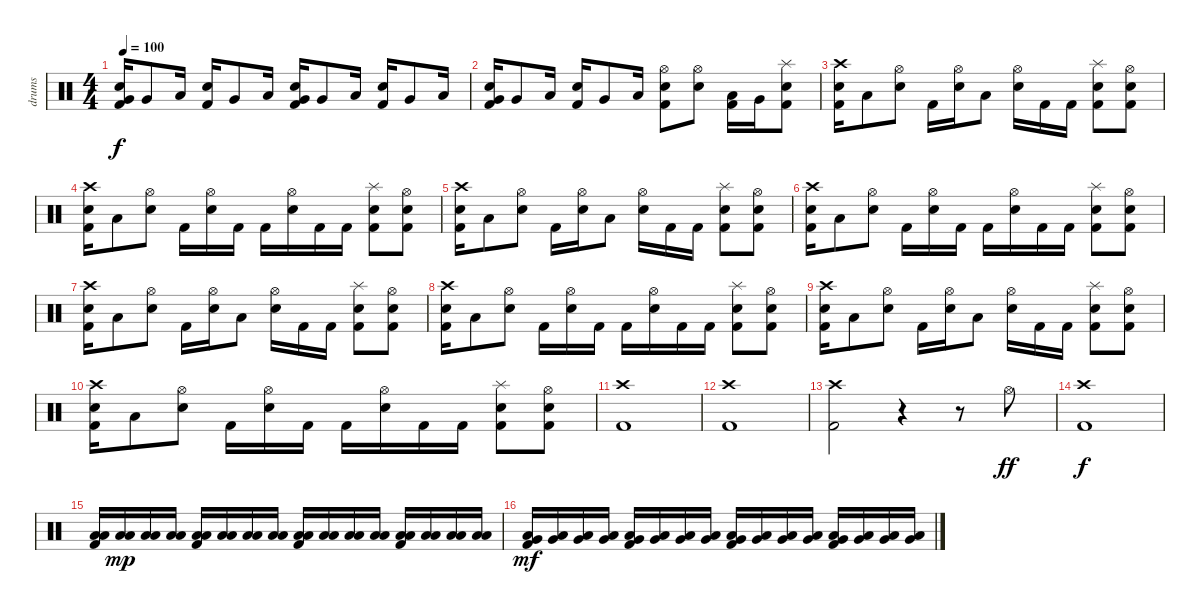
\track ("drums" "drums") {instrument percussion}
\staff {score}
\articulation defaults
\ts (4 4)
\tempo 100
\clef neutral
\ks c
("Electric Snare (hit)" "Very Low Tom (hit)" "Kick (hit) 2").16{dy f} "Very Low Tom (hit)".8 "Low Floor Tom (hit)".16 ("Electric Snare (hit)" "Kick (hit) 2").16 "Very Low Tom (hit)".8 "Low Floor Tom (hit)".16 ("Electric Snare (hit)" "Very Low Tom (hit)" "Kick (hit) 2").16 "Very Low Tom (hit)".8 "Low Floor Tom (hit)".16 ("Electric Snare (hit)" "Kick (hit) 2").16 "Very Low Tom (hit)".8 "Low Floor Tom (hit)".16 |
("Electric Snare (hit)" "Very Low Tom (hit)" "Kick (hit) 2").16 "Very Low Tom (hit)".8 "Low Floor Tom (hit)".16 ("Electric Snare (hit)" "Kick (hit) 2").16 "Very Low Tom (hit)".8 "Low Floor Tom (hit)".16 ("Hi-Hat (open)" "Electric Snare (hit)" "Kick (hit) 2").8 ("Hi-Hat (open)" "Electric Snare (hit)").8 ("Low Floor Tom (hit)" "Kick (hit) 2").16 "Very Low Tom (hit)".16 ("Splash (hit)" "Electric Snare (hit)" "Kick (hit) 2").8 |
("Crash high (hit)" "Electric Snare (hit)" "Kick (hit) 2").16 "Low Floor Tom (hit)".8 ("Hi-Hat (open)" "Electric Snare (hit)").8 "Kick (hit) 2".16 ("Hi-Hat (open)" "Electric Snare (hit)").16 "Low Floor Tom (hit)".8 ("Hi-Hat (open)" "Electric Snare (hit)").16 "Kick (hit) 2".16 "Kick (hit) 2".16 ("Splash (hit)" "Electric Snare (hit)" "Kick (hit) 2").8 ("Hi-Hat (open)" "Electric Snare (hit)" "Kick (hit) 2").8 |
("Crash high (hit)" "Electric Snare (hit)" "Kick (hit) 2").16 "Low Floor Tom (hit)".8 ("Hi-Hat (open)" "Electric Snare (hit)").8 "Kick (hit) 2".16 ("Hi-Hat (open)" "Electric Snare (hit)").16 "Kick (hit) 2".16 "Kick (hit) 2".16 ("Hi-Hat (open)" "Electric Snare (hit)").16 "Kick (hit) 2".16 "Kick (hit) 2".16 ("Splash (hit)" "Electric Snare (hit)" "Kick (hit) 2").8 ("Hi-Hat (open)" "Electric Snare (hit)" "Kick (hit) 2").8 |
("Crash high (hit)" "Electric Snare (hit)" "Kick (hit) 2").16 "Low Floor Tom (hit)".8 ("Hi-Hat (open)" "Electric Snare (hit)").8 "Kick (hit) 2".16 ("Hi-Hat (open)" "Electric Snare (hit)").16 "Low Floor Tom (hit)".8 ("Hi-Hat (open)" "Electric Snare (hit)").16 "Kick (hit) 2".16 "Kick (hit) 2".16 ("Splash (hit)" "Electric Snare (hit)" "Kick (hit) 2").8 ("Hi-Hat (open)" "Electric Snare (hit)" "Kick (hit) 2").8 |
("Crash high (hit)" "Electric Snare (hit)" "Kick (hit) 2").16 "Low Floor Tom (hit)".8 ("Hi-Hat (open)" "Electric Snare (hit)").8 "Kick (hit) 2".16 ("Hi-Hat (open)" "Electric Snare (hit)").16 "Kick (hit) 2".16 "Kick (hit) 2".16 ("Hi-Hat (open)" "Electric Snare (hit)").16 "Kick (hit) 2".16 "Kick (hit) 2".16 ("Splash (hit)" "Electric Snare (hit)" "Kick (hit) 2").8 ("Hi-Hat (open)" "Electric Snare (hit)" "Kick (hit) 2").8 |
("Crash high (hit)" "Electric Snare (hit)" "Kick (hit) 2").16 "Low Floor Tom (hit)".8 ("Hi-Hat (open)" "Electric Snare (hit)").8 "Kick (hit) 2".16 ("Hi-Hat (open)" "Electric Snare (hit)").16 "Low Floor Tom (hit)".8 ("Hi-Hat (open)" "Electric Snare (hit)").16 "Kick (hit) 2".16 "Kick (hit) 2".16 ("Splash (hit)" "Electric Snare (hit)" "Kick (hit) 2").8 ("Hi-Hat (open)" "Electric Snare (hit)" "Kick (hit) 2").8 |
("Crash high (hit)" "Electric Snare (hit)" "Kick (hit) 2").16 "Low Floor Tom (hit)".8 ("Hi-Hat (open)" "Electric Snare (hit)").8 "Kick (hit) 2".16 ("Hi-Hat (open)" "Electric Snare (hit)").16 "Kick (hit) 2".16 "Kick (hit) 2".16 ("Hi-Hat (open)" "Electric Snare (hit)").16 "Kick (hit) 2".16 "Kick (hit) 2".16 ("Splash (hit)" "Electric Snare (hit)" "Kick (hit) 2").8 ("Hi-Hat (open)" "Electric Snare (hit)" "Kick (hit) 2").8 |
("Crash high (hit)" "Electric Snare (hit)" "Kick (hit) 2").16 "Low Floor Tom (hit)".8 ("Hi-Hat (open)" "Electric Snare (hit)").8 "Kick (hit) 2".16 ("Hi-Hat (open)" "Electric Snare (hit)").16 "Low Floor Tom (hit)".8 ("Hi-Hat (open)" "Electric Snare (hit)").16 "Kick (hit) 2".16 "Kick (hit) 2".16 ("Splash (hit)" "Electric Snare (hit)" "Kick (hit) 2").8 ("Hi-Hat (open)" "Electric Snare (hit)" "Kick (hit) 2").8 |
("Crash high (hit)" "Electric Snare (hit)" "Kick (hit) 2").16 "Low Floor Tom (hit)".8 ("Hi-Hat (open)" "Electric Snare (hit)").8 "Kick (hit) 2".16 ("Hi-Hat (open)" "Electric Snare (hit)").16 "Kick (hit) 2".16 "Kick (hit) 2".16 ("Hi-Hat (open)" "Electric Snare (hit)").16 "Kick (hit) 2".16 "Kick (hit) 2".16 ("Splash (hit)" "Electric Snare (hit)" "Kick (hit) 2").8 ("Hi-Hat (open)" "Electric Snare (hit)" "Kick (hit) 2").8 |
("Crash high (hit)" "Kick (hit) 2").1 |
("Crash high (hit)" "Kick (hit) 2").1 |
("Crash high (hit)" "Kick (hit) 2").2 r.4 r.8 "Hi-Hat (open)".8{dy ff} |
("Crash high (hit)" "Kick (hit) 2").1{dy f} |
("Low Floor Tom (hit)" "Low Floor Tom (hit)" "Kick (hit) 2").16 ("Low Floor Tom (hit)" "Low Floor Tom (hit)").16{dy mp} ("Low Floor Tom (hit)" "Low Floor Tom (hit)").16 ("Low Floor Tom (hit)" "Low Floor Tom (hit)").16 ("Low Floor Tom (hit)" "Low Floor Tom (hit)" "Kick (hit) 2").16 ("Low Floor Tom (hit)" "Low Floor Tom (hit)").16 ("Low Floor Tom (hit)" "Low Floor Tom (hit)").16 ("Low Floor Tom (hit)" "Low Floor Tom (hit)").16 ("Low Floor Tom (hit)" "Low Floor Tom (hit)" "Kick (hit) 2").16 ("Low Floor Tom (hit)" "Low Floor Tom (hit)").16 ("Low Floor Tom (hit)" "Low Floor Tom (hit)").16 ("Low Floor Tom (hit)" "Low Floor Tom (hit)").16 ("Low Floor Tom (hit)" "Low Floor Tom (hit)" "Kick (hit) 2").16 ("Low Floor Tom (hit)" "Low Floor Tom (hit)").16 ("Low Floor Tom (hit)" "Low Floor Tom (hit)").16 ("Low Floor Tom (hit)" "Low Floor Tom (hit)").16 |
("Very Low Tom (hit)" "Low Floor Tom (hit)" "Kick (hit) 2").16{dy mf} ("Very Low Tom (hit)" "Low Floor Tom (hit)").16 ("Very Low Tom (hit)" "Low Floor Tom (hit)").16 ("Very Low Tom (hit)" "Low Floor Tom (hit)").16 ("Very Low Tom (hit)" "Low Floor Tom (hit)" "Kick (hit) 2").16 ("Very Low Tom (hit)" "Low Floor Tom (hit)").16 ("Very Low Tom (hit)" "Low Floor Tom (hit)").16 ("Very Low Tom (hit)" "Low Floor Tom (hit)").16 ("Very Low Tom (hit)" "Low Floor Tom (hit)" "Kick (hit) 2").16 ("Very Low Tom (hit)" "Low Floor Tom (hit)").16 ("Very Low Tom (hit)" "Low Floor Tom (hit)").16 ("Very Low Tom (hit)" "Low Floor Tom (hit)").16 ("Very Low Tom (hit)" "Low Floor Tom (hit)" "Kick (hit) 2").16 ("Very Low Tom (hit)" "Low Floor Tom (hit)").16 ("Very Low Tom (hit)" "Low Floor Tom (hit)").16 ("Very Low Tom (hit)" "Low Floor Tom (hit)").16
